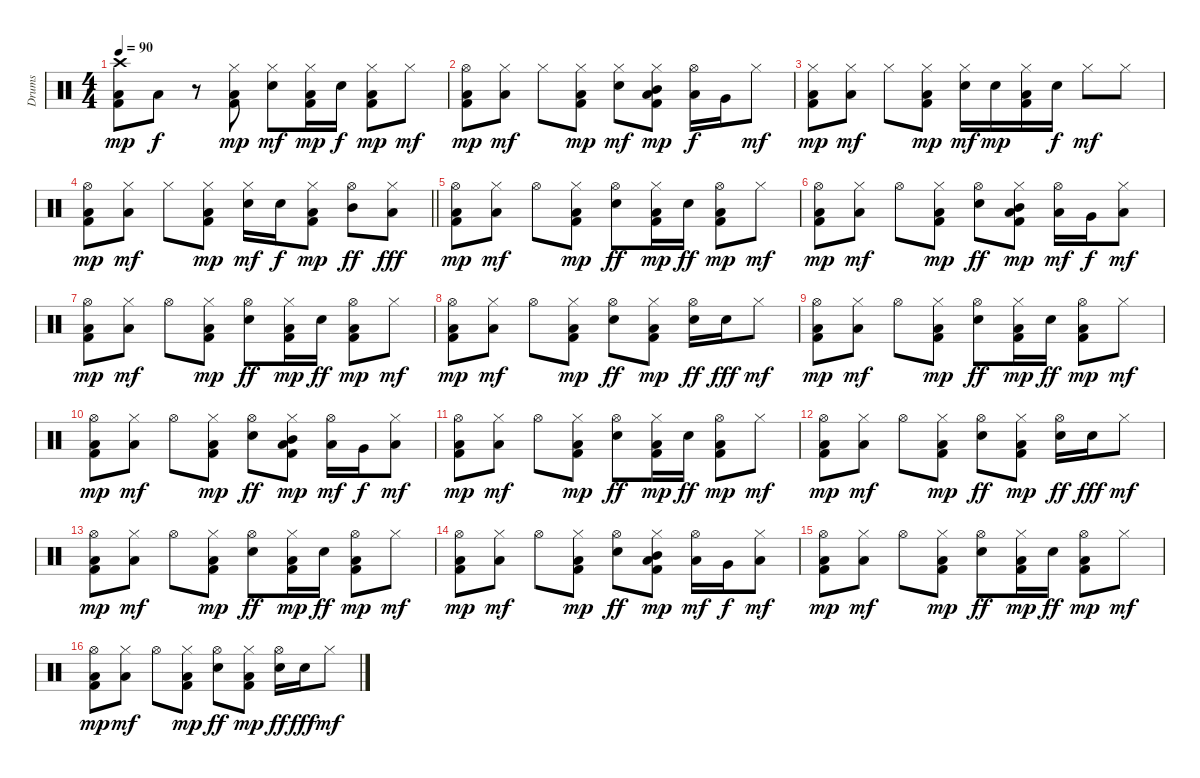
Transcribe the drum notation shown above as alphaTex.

\track ("Drums" "Drums") {instrument percussion}
\staff {score}
\articulation defaults
\ts (4 4)
\tempo 90
\clef neutral
\ks c
("Crash high (hit)" "Kick (hit) 2" "Low Floor Tom (hit)").8{dy mp} "Low Tom (hit)".8{dy f} r.8 ("Hi-Hat (closed)" "Kick (hit) 2" "Low Floor Tom (hit)").8{dy mp} ("Hi-Hat (closed)" "Snare (hit) 2").8{dy mf} ("Hi-Hat (closed)" "Kick (hit) 2" "Low Floor Tom (hit)").16{dy mp} "Snare (hit) 2".16{dy f} ("Hi-Hat (closed)" "Kick (hit) 2" "Low Floor Tom (hit)").8{dy mp} "Hi-Hat (closed)".8{dy mf} |
("Hi-Hat (open)" "Kick (hit) 2" "Low Floor Tom (hit)").8{dy mp} ("Hi-Hat (closed)" "Low Tom (hit)").8{dy mf} "Hi-Hat (closed)".8 ("Hi-Hat (closed)" "Kick (hit) 2" "Low Floor Tom (hit)").8{dy mp} ("Hi-Hat (closed)" "Snare (hit) 2").8{dy mf} ("Hi-Hat (closed)" "Mid Tom (hit)" "Kick (hit) 2" "Low Floor Tom (hit)").8{dy mp} ("Hi-Hat (open)" "Low Tom (hit)").16{dy f} "Very Low Tom (hit)".16 "Hi-Hat (closed)".8{dy mf} |
("Hi-Hat (closed)" "Kick (hit) 2" "Low Floor Tom (hit)").8{dy mp} ("Hi-Hat (closed)" "Low Tom (hit)").8{dy mf} "Hi-Hat (closed)".8 ("Hi-Hat (closed)" "Kick (hit) 2" "Low Floor Tom (hit)").8{dy mp} ("Hi-Hat (closed)" "Snare (hit) 2").16{dy mf} "Snare (hit) 2".16{dy mp} ("Hi-Hat (closed)" "Kick (hit) 2" "Low Floor Tom (hit)").16 "Snare (hit) 2".16{dy f} "Hi-Hat (closed)".8{dy mf} "Hi-Hat (closed)".8 |
\barLineRight lightlight
("Hi-Hat (open)" "Kick (hit) 2" "Low Floor Tom (hit)").8{dy mp} ("Hi-Hat (closed)" "Low Tom (hit)").8{dy mf} "Hi-Hat (closed)".8 ("Hi-Hat (closed)" "Kick (hit) 2" "Low Floor Tom (hit)").8{dy mp} ("Hi-Hat (closed)" "Snare (hit) 2").16{dy mf} "Snare (hit) 2".16{dy f} ("Hi-Hat (closed)" "Kick (hit) 2" "Low Floor Tom (hit)").8{dy mp} ("Hi-Hat (open)" "Mid Tom (hit)").8{dy ff} ("Hi-Hat (closed)" "Low Tom (hit)").8{dy fff} |
\section ("" "")
("Hi-Hat (open)" "Kick (hit) 2" "Low Floor Tom (hit)").8{dy mp} ("Hi-Hat (closed)" "Low Tom (hit)").8{dy mf} "Hi-Hat (open)".8 ("Hi-Hat (closed)" "Kick (hit) 2" "Low Floor Tom (hit)").8{dy mp} ("Hi-Hat (open)" "Snare (hit) 2").8{dy ff} ("Hi-Hat (closed)" "Kick (hit) 2" "Low Floor Tom (hit)").16{dy mp} "Snare (hit) 2".16{dy ff} ("Hi-Hat (open)" "Kick (hit) 2" "Low Floor Tom (hit)").8{dy mp} "Hi-Hat (closed)".8{dy mf} |
("Hi-Hat (open)" "Kick (hit) 2" "Low Floor Tom (hit)").8{dy mp} ("Hi-Hat (closed)" "Low Tom (hit)").8{dy mf} "Hi-Hat (open)".8 ("Hi-Hat (closed)" "Kick (hit) 2" "Low Floor Tom (hit)").8{dy mp} ("Hi-Hat (open)" "Snare (hit) 2").8{dy ff} ("Hi-Hat (closed)" "Mid Tom (hit)" "Kick (hit) 2" "Low Floor Tom (hit)").8{dy mp} ("Hi-Hat (open)" "Low Tom (hit)").16{dy mf} "Very Low Tom (hit)".16{dy f} ("Hi-Hat (closed)" "Low Floor Tom (hit)").8{dy mf} |
("Hi-Hat (open)" "Kick (hit) 2" "Low Floor Tom (hit)").8{dy mp} ("Hi-Hat (closed)" "Low Tom (hit)").8{dy mf} "Hi-Hat (open)".8 ("Hi-Hat (closed)" "Kick (hit) 2" "Low Floor Tom (hit)").8{dy mp} ("Hi-Hat (open)" "Snare (hit) 2").8{dy ff} ("Hi-Hat (closed)" "Kick (hit) 2" "Low Floor Tom (hit)").16{dy mp} "Snare (hit) 2".16{dy ff} ("Hi-Hat (open)" "Kick (hit) 2" "Low Floor Tom (hit)").8{dy mp} "Hi-Hat (closed)".8{dy mf} |
("Hi-Hat (open)" "Kick (hit) 2" "Low Floor Tom (hit)").8{dy mp} ("Hi-Hat (closed)" "Low Tom (hit)").8{dy mf} "Hi-Hat (open)".8 ("Hi-Hat (closed)" "Kick (hit) 2" "Low Floor Tom (hit)").8{dy mp} ("Hi-Hat (open)" "Snare (hit) 2").8{dy ff} ("Hi-Hat (closed)" "Kick (hit) 2" "Low Floor Tom (hit)").8{dy mp} ("Hi-Hat (open)" "Snare (hit) 2").16{dy ff} "Snare (hit) 2".16{dy fff} "Hi-Hat (closed)".8{dy mf} |
("Hi-Hat (open)" "Kick (hit) 2" "Low Floor Tom (hit)").8{dy mp} ("Hi-Hat (closed)" "Low Tom (hit)").8{dy mf} "Hi-Hat (open)".8 ("Hi-Hat (closed)" "Kick (hit) 2" "Low Floor Tom (hit)").8{dy mp} ("Hi-Hat (open)" "Snare (hit) 2").8{dy ff} ("Hi-Hat (closed)" "Kick (hit) 2" "Low Floor Tom (hit)").16{dy mp} "Snare (hit) 2".16{dy ff} ("Hi-Hat (open)" "Kick (hit) 2" "Low Floor Tom (hit)").8{dy mp} "Hi-Hat (closed)".8{dy mf} |
("Hi-Hat (open)" "Kick (hit) 2" "Low Floor Tom (hit)").8{dy mp} ("Hi-Hat (closed)" "Low Tom (hit)").8{dy mf} "Hi-Hat (open)".8 ("Hi-Hat (closed)" "Kick (hit) 2" "Low Floor Tom (hit)").8{dy mp} ("Hi-Hat (open)" "Snare (hit) 2").8{dy ff} ("Hi-Hat (closed)" "Mid Tom (hit)" "Kick (hit) 2" "Low Floor Tom (hit)").8{dy mp} ("Hi-Hat (open)" "Low Tom (hit)").16{dy mf} "Very Low Tom (hit)".16{dy f} ("Hi-Hat (closed)" "Low Floor Tom (hit)").8{dy mf} |
("Hi-Hat (open)" "Kick (hit) 2" "Low Floor Tom (hit)").8{dy mp} ("Hi-Hat (closed)" "Low Tom (hit)").8{dy mf} "Hi-Hat (open)".8 ("Hi-Hat (closed)" "Kick (hit) 2" "Low Floor Tom (hit)").8{dy mp} ("Hi-Hat (open)" "Snare (hit) 2").8{dy ff} ("Hi-Hat (closed)" "Kick (hit) 2" "Low Floor Tom (hit)").16{dy mp} "Snare (hit) 2".16{dy ff} ("Hi-Hat (open)" "Kick (hit) 2" "Low Floor Tom (hit)").8{dy mp} "Hi-Hat (closed)".8{dy mf} |
("Hi-Hat (open)" "Kick (hit) 2" "Low Floor Tom (hit)").8{dy mp} ("Hi-Hat (closed)" "Low Tom (hit)").8{dy mf} "Hi-Hat (open)".8 ("Hi-Hat (closed)" "Kick (hit) 2" "Low Floor Tom (hit)").8{dy mp} ("Hi-Hat (open)" "Snare (hit) 2").8{dy ff} ("Hi-Hat (closed)" "Kick (hit) 2" "Low Floor Tom (hit)").8{dy mp} ("Hi-Hat (open)" "Snare (hit) 2").16{dy ff} "Snare (hit) 2".16{dy fff} "Hi-Hat (closed)".8{dy mf} |
("Hi-Hat (open)" "Kick (hit) 2" "Low Floor Tom (hit)").8{dy mp} ("Hi-Hat (closed)" "Low Tom (hit)").8{dy mf} "Hi-Hat (open)".8 ("Hi-Hat (closed)" "Kick (hit) 2" "Low Floor Tom (hit)").8{dy mp} ("Hi-Hat (open)" "Snare (hit) 2").8{dy ff} ("Hi-Hat (closed)" "Kick (hit) 2" "Low Floor Tom (hit)").16{dy mp} "Snare (hit) 2".16{dy ff} ("Hi-Hat (open)" "Kick (hit) 2" "Low Floor Tom (hit)").8{dy mp} "Hi-Hat (closed)".8{dy mf} |
("Hi-Hat (open)" "Kick (hit) 2" "Low Floor Tom (hit)").8{dy mp} ("Hi-Hat (closed)" "Low Tom (hit)").8{dy mf} "Hi-Hat (open)".8 ("Hi-Hat (closed)" "Kick (hit) 2" "Low Floor Tom (hit)").8{dy mp} ("Hi-Hat (open)" "Snare (hit) 2").8{dy ff} ("Hi-Hat (closed)" "Mid Tom (hit)" "Kick (hit) 2" "Low Floor Tom (hit)").8{dy mp} ("Hi-Hat (open)" "Low Tom (hit)").16{dy mf} "Very Low Tom (hit)".16{dy f} ("Hi-Hat (closed)" "Low Floor Tom (hit)").8{dy mf} |
("Hi-Hat (open)" "Kick (hit) 2" "Low Floor Tom (hit)").8{dy mp} ("Hi-Hat (closed)" "Low Tom (hit)").8{dy mf} "Hi-Hat (open)".8 ("Hi-Hat (closed)" "Kick (hit) 2" "Low Floor Tom (hit)").8{dy mp} ("Hi-Hat (open)" "Snare (hit) 2").8{dy ff} ("Hi-Hat (closed)" "Kick (hit) 2" "Low Floor Tom (hit)").16{dy mp} "Snare (hit) 2".16{dy ff} ("Hi-Hat (open)" "Kick (hit) 2" "Low Floor Tom (hit)").8{dy mp} "Hi-Hat (closed)".8{dy mf} |
("Hi-Hat (open)" "Kick (hit) 2" "Low Floor Tom (hit)").8{dy mp} ("Hi-Hat (closed)" "Low Tom (hit)").8{dy mf} "Hi-Hat (open)".8 ("Hi-Hat (closed)" "Kick (hit) 2" "Low Floor Tom (hit)").8{dy mp} ("Hi-Hat (open)" "Snare (hit) 2").8{dy ff} ("Hi-Hat (closed)" "Kick (hit) 2" "Low Floor Tom (hit)").8{dy mp} ("Hi-Hat (open)" "Snare (hit) 2").16{dy ff} "Snare (hit) 2".16{dy fff} "Hi-Hat (closed)".8{dy mf}
